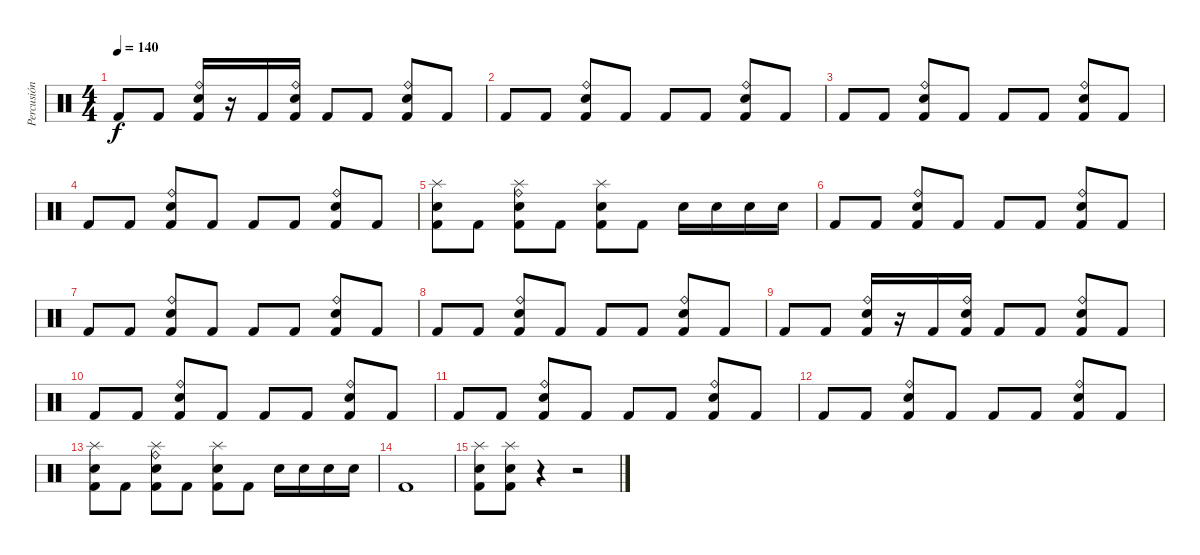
\track ("Percusión" "Percusión") {instrument percussion}
\staff {score}
\articulation defaults
\ts (4 4)
\tempo 140
\clef neutral
\ks c "Kick (hit) 2".8{dy f} "Kick (hit) 2".8
("Ride (bell)" "Electric Snare (hit)" "Kick (hit) 2").16 r.16 "Kick (hit) 2".16 ("Ride (bell)" "Electric Snare (hit)" "Kick (hit) 2").16 "Kick (hit) 2".8 "Kick (hit) 2".8 ("Ride (bell)" "Electric Snare (hit)" "Kick (hit) 2").8 "Kick (hit) 2".8 |
"Kick (hit) 2".8 "Kick (hit) 2".8 ("Ride (bell)" "Electric Snare (hit)" "Kick (hit) 2").8 "Kick (hit) 2".8 "Kick (hit) 2".8 "Kick (hit) 2".8 ("Ride (bell)" "Electric Snare (hit)" "Kick (hit) 2").8 "Kick (hit) 2".8 |
"Kick (hit) 2".8 "Kick (hit) 2".8 ("Ride (bell)" "Electric Snare (hit)" "Kick (hit) 2").8 "Kick (hit) 2".8 "Kick (hit) 2".8 "Kick (hit) 2".8 ("Ride (bell)" "Electric Snare (hit)" "Kick (hit) 2").8 "Kick (hit) 2".8 |
"Kick (hit) 2".8 "Kick (hit) 2".8 ("Ride (bell)" "Electric Snare (hit)" "Kick (hit) 2").8 "Kick (hit) 2".8 "Kick (hit) 2".8 "Kick (hit) 2".8 ("Ride (bell)" "Electric Snare (hit)" "Kick (hit) 2").8 "Kick (hit) 2".8 |
("Splash (hit)" "Electric Snare (hit)" "Kick (hit) 2").8 "Kick (hit) 2".8 ("Ride (bell)" "Splash (hit)" "Electric Snare (hit)" "Kick (hit) 2").8 "Kick (hit) 2".8 ("Splash (hit)" "Electric Snare (hit)" "Kick (hit) 2").8 "Kick (hit) 2".8 "Electric Snare (hit)".16 "Electric Snare (hit)".16 "Electric Snare (hit)".16 "Electric Snare (hit)".16 |
"Kick (hit) 2".8 "Kick (hit) 2".8 ("Ride (bell)" "Electric Snare (hit)" "Kick (hit) 2").8 "Kick (hit) 2".8 "Kick (hit) 2".8 "Kick (hit) 2".8 ("Ride (bell)" "Electric Snare (hit)" "Kick (hit) 2").8 "Kick (hit) 2".8 |
"Kick (hit) 2".8 "Kick (hit) 2".8 ("Ride (bell)" "Electric Snare (hit)" "Kick (hit) 2").8 "Kick (hit) 2".8 "Kick (hit) 2".8 "Kick (hit) 2".8 ("Ride (bell)" "Electric Snare (hit)" "Kick (hit) 2").8 "Kick (hit) 2".8 |
"Kick (hit) 2".8 "Kick (hit) 2".8 ("Ride (bell)" "Electric Snare (hit)" "Kick (hit) 2").8 "Kick (hit) 2".8 "Kick (hit) 2".8 "Kick (hit) 2".8 ("Ride (bell)" "Electric Snare (hit)" "Kick (hit) 2").8 "Kick (hit) 2".8 |
"Kick (hit) 2".8 "Kick (hit) 2".8 ("Ride (bell)" "Electric Snare (hit)" "Kick (hit) 2").16 r.16 "Kick (hit) 2".16 ("Ride (bell)" "Electric Snare (hit)" "Kick (hit) 2").16 "Kick (hit) 2".8 "Kick (hit) 2".8 ("Ride (bell)" "Electric Snare (hit)" "Kick (hit) 2").8 "Kick (hit) 2".8 |
"Kick (hit) 2".8 "Kick (hit) 2".8 ("Ride (bell)" "Electric Snare (hit)" "Kick (hit) 2").8 "Kick (hit) 2".8 "Kick (hit) 2".8 "Kick (hit) 2".8 ("Ride (bell)" "Electric Snare (hit)" "Kick (hit) 2").8 "Kick (hit) 2".8 |
"Kick (hit) 2".8 "Kick (hit) 2".8 ("Ride (bell)" "Electric Snare (hit)" "Kick (hit) 2").8 "Kick (hit) 2".8 "Kick (hit) 2".8 "Kick (hit) 2".8 ("Ride (bell)" "Electric Snare (hit)" "Kick (hit) 2").8 "Kick (hit) 2".8 |
"Kick (hit) 2".8 "Kick (hit) 2".8 ("Ride (bell)" "Electric Snare (hit)" "Kick (hit) 2").8 "Kick (hit) 2".8 "Kick (hit) 2".8 "Kick (hit) 2".8 ("Ride (bell)" "Electric Snare (hit)" "Kick (hit) 2").8 "Kick (hit) 2".8 |
("Splash (hit)" "Electric Snare (hit)" "Kick (hit) 2").8 "Kick (hit) 2".8 ("Ride (bell)" "Splash (hit)" "Electric Snare (hit)" "Kick (hit) 2").8 "Kick (hit) 2".8 ("Splash (hit)" "Electric Snare (hit)" "Kick (hit) 2").8 "Kick (hit) 2".8 "Electric Snare (hit)".16 "Electric Snare (hit)".16 "Electric Snare (hit)".16 "Electric Snare (hit)".16 |
"Kick (hit) 2".1 |
("Splash (hit)" "Electric Snare (hit)" "Kick (hit) 2").8 ("Splash (hit)" "Electric Snare (hit)" "Kick (hit) 2").8 r.4 r.2
